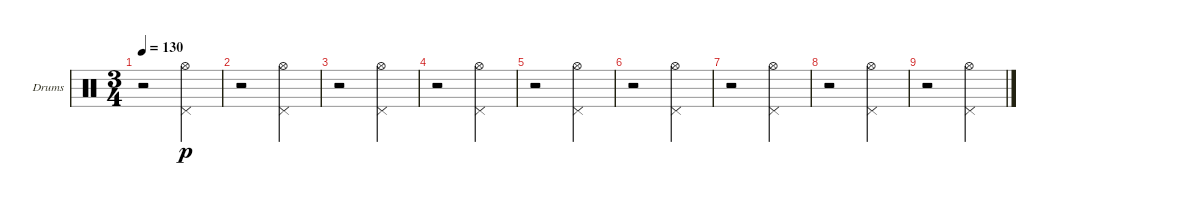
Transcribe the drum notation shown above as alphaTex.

\bracketExtendMode groupsimilarinstruments
\firstSystemTrackNameOrientation horizontal
\otherSystemsTrackNameOrientation horizontal
\track ("HH" "Drums") {instrument percussion}
\staff {score}
\articulation defaults
\ts (3 4)
\tempo 130
\clef neutral
\ks c
r.2{dy p} ("Pedal Hi-Hat (hit)" "Hi-Hat (open)").4 |
r.2 ("Pedal Hi-Hat (hit)" "Hi-Hat (open)").4 |
r.2 ("Pedal Hi-Hat (hit)" "Hi-Hat (open)").4 |
r.2 ("Pedal Hi-Hat (hit)" "Hi-Hat (open)").4 |
r.2 ("Pedal Hi-Hat (hit)" "Hi-Hat (open)").4 |
r.2 ("Pedal Hi-Hat (hit)" "Hi-Hat (open)").4 |
r.2 ("Pedal Hi-Hat (hit)" "Hi-Hat (open)").4 |
r.2 ("Pedal Hi-Hat (hit)" "Hi-Hat (open)").4 |
r.2 ("Pedal Hi-Hat (hit)" "Hi-Hat (open)").4
